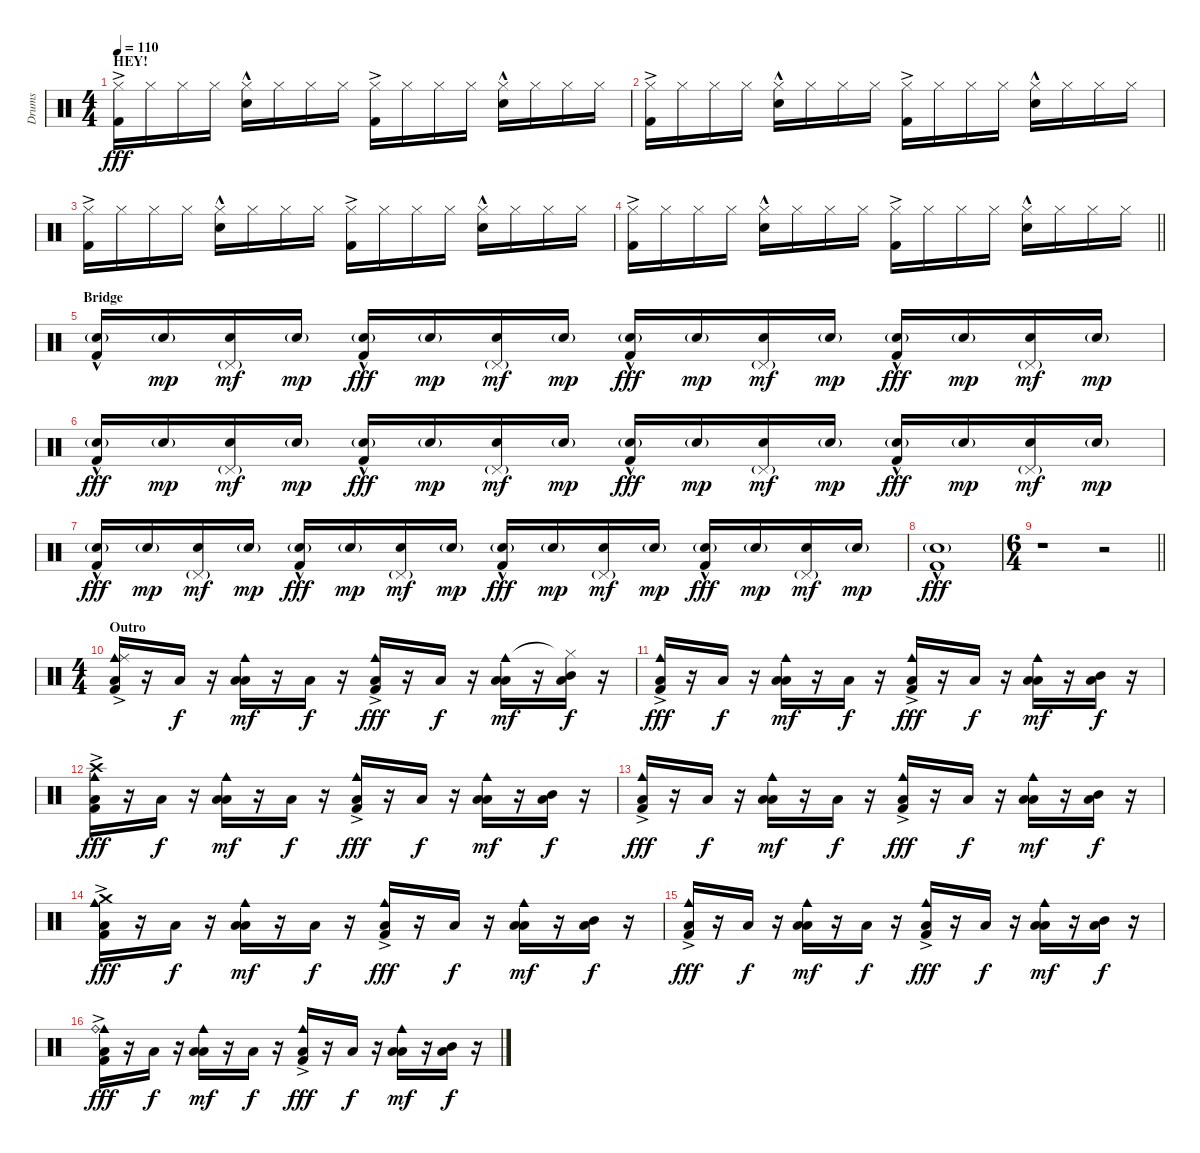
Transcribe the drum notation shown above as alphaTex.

\track ("Drums" "Drums") {instrument percussion}
\staff {score}
\articulation defaults
\ts (4 4)
\section ("" "HEY!")
\tempo 110
\clef neutral
\ks c
("Hi-Hat (closed)" "Kick (hit) 2"{ac}).16{dy fff} "Hi-Hat (closed)".16 "Hi-Hat (closed)".16 "Hi-Hat (closed)".16 ("Hi-Hat (closed)" "Electric Snare (hit)"{hac}).16 "Hi-Hat (closed)".16 "Hi-Hat (closed)".16 "Hi-Hat (closed)".16 ("Hi-Hat (closed)" "Kick (hit) 2"{ac}).16 "Hi-Hat (closed)".16 "Hi-Hat (closed)".16 "Hi-Hat (closed)".16 ("Hi-Hat (closed)" "Electric Snare (hit)"{hac}).16 "Hi-Hat (closed)".16 "Hi-Hat (closed)".16 "Hi-Hat (closed)".16 |
("Hi-Hat (closed)" "Kick (hit) 2"{ac}).16 "Hi-Hat (closed)".16 "Hi-Hat (closed)".16 "Hi-Hat (closed)".16 ("Hi-Hat (closed)" "Electric Snare (hit)"{hac}).16 "Hi-Hat (closed)".16 "Hi-Hat (closed)".16 "Hi-Hat (closed)".16 ("Hi-Hat (closed)" "Kick (hit) 2"{ac}).16 "Hi-Hat (closed)".16 "Hi-Hat (closed)".16 "Hi-Hat (closed)".16 ("Hi-Hat (closed)" "Electric Snare (hit)"{hac}).16 "Hi-Hat (closed)".16 "Hi-Hat (closed)".16 "Hi-Hat (closed)".16 |
("Hi-Hat (closed)" "Kick (hit) 2"{ac}).16 "Hi-Hat (closed)".16 "Hi-Hat (closed)".16 "Hi-Hat (closed)".16 ("Hi-Hat (closed)" "Electric Snare (hit)"{hac}).16 "Hi-Hat (closed)".16 "Hi-Hat (closed)".16 "Hi-Hat (closed)".16 ("Hi-Hat (closed)" "Kick (hit) 2"{ac}).16 "Hi-Hat (closed)".16 "Hi-Hat (closed)".16 "Hi-Hat (closed)".16 ("Hi-Hat (closed)" "Electric Snare (hit)"{hac}).16 "Hi-Hat (closed)".16 "Hi-Hat (closed)".16 "Hi-Hat (closed)".16 |
\barLineRight lightlight
("Hi-Hat (closed)" "Kick (hit) 2"{ac}).16 "Hi-Hat (closed)".16 "Hi-Hat (closed)".16 "Hi-Hat (closed)".16 ("Hi-Hat (closed)" "Electric Snare (hit)"{hac}).16 "Hi-Hat (closed)".16 "Hi-Hat (closed)".16 "Hi-Hat (closed)".16 ("Hi-Hat (closed)" "Kick (hit) 2"{ac}).16 "Hi-Hat (closed)".16 "Hi-Hat (closed)".16 "Hi-Hat (closed)".16 ("Hi-Hat (closed)" "Electric Snare (hit)"{hac}).16 "Hi-Hat (closed)".16 "Hi-Hat (closed)".16 "Hi-Hat (closed)".16 |
\section ("" "Bridge")
("Electric Snare (hit)"{g} "Kick (hit) 2"{hac}).16 "Electric Snare (hit)"{g}.16{dy mp} ("Pedal Hi-Hat (hit)"{g} "Electric Snare (hit)").16{dy mf} "Electric Snare (hit)"{g}.16{dy mp} ("Electric Snare (hit)"{g} "Kick (hit) 2"{hac}).16{dy fff} "Electric Snare (hit)"{g}.16{dy mp} ("Pedal Hi-Hat (hit)"{g} "Electric Snare (hit)").16{dy mf} "Electric Snare (hit)"{g}.16{dy mp} ("Electric Snare (hit)"{g} "Kick (hit) 2"{hac}).16{dy fff} "Electric Snare (hit)"{g}.16{dy mp} ("Pedal Hi-Hat (hit)"{g} "Electric Snare (hit)").16{dy mf} "Electric Snare (hit)"{g}.16{dy mp} ("Electric Snare (hit)"{g} "Kick (hit) 2"{hac}).16{dy fff} "Electric Snare (hit)"{g}.16{dy mp} ("Pedal Hi-Hat (hit)"{g} "Electric Snare (hit)").16{dy mf} "Electric Snare (hit)"{g}.16{dy mp} |
("Electric Snare (hit)"{g} "Kick (hit) 2"{hac}).16{dy fff} "Electric Snare (hit)"{g}.16{dy mp} ("Pedal Hi-Hat (hit)"{g} "Electric Snare (hit)").16{dy mf} "Electric Snare (hit)"{g}.16{dy mp} ("Electric Snare (hit)"{g} "Kick (hit) 2"{hac}).16{dy fff} "Electric Snare (hit)"{g}.16{dy mp} ("Pedal Hi-Hat (hit)"{g} "Electric Snare (hit)").16{dy mf} "Electric Snare (hit)"{g}.16{dy mp} ("Electric Snare (hit)"{g} "Kick (hit) 2"{hac}).16{dy fff} "Electric Snare (hit)"{g}.16{dy mp} ("Pedal Hi-Hat (hit)"{g} "Electric Snare (hit)").16{dy mf} "Electric Snare (hit)"{g}.16{dy mp} ("Electric Snare (hit)"{g} "Kick (hit) 2"{hac}).16{dy fff} "Electric Snare (hit)"{g}.16{dy mp} ("Pedal Hi-Hat (hit)"{g} "Electric Snare (hit)").16{dy mf} "Electric Snare (hit)"{g}.16{dy mp} |
("Electric Snare (hit)"{g} "Kick (hit) 2"{hac}).16{dy fff} "Electric Snare (hit)"{g}.16{dy mp} ("Pedal Hi-Hat (hit)"{g} "Electric Snare (hit)").16{dy mf} "Electric Snare (hit)"{g}.16{dy mp} ("Electric Snare (hit)"{g} "Kick (hit) 2"{hac}).16{dy fff} "Electric Snare (hit)"{g}.16{dy mp} ("Pedal Hi-Hat (hit)"{g} "Electric Snare (hit)").16{dy mf} "Electric Snare (hit)"{g}.16{dy mp} ("Electric Snare (hit)"{g} "Kick (hit) 2"{hac}).16{dy fff} "Electric Snare (hit)"{g}.16{dy mp} ("Pedal Hi-Hat (hit)"{g} "Electric Snare (hit)").16{dy mf} "Electric Snare (hit)"{g}.16{dy mp} ("Electric Snare (hit)"{g} "Kick (hit) 2"{hac}).16{dy fff} "Electric Snare (hit)"{g}.16{dy mp} ("Pedal Hi-Hat (hit)"{g} "Electric Snare (hit)").16{dy mf} "Electric Snare (hit)"{g}.16{dy mp} |
("Electric Snare (hit)"{g} "Kick (hit) 2"{hac}).1{dy fff} |
\ts (6 4)
\barLineRight lightlight
r.1 r.2 |
\ts (4 4)
\section ("" "Outro")
("Cowbell medium (hit)" "Ride (middle)" "Low Floor Tom (hit)" "Kick (hit) 2"{ac}).16 r.16 "Low Floor Tom (hit)".16{dy f} r.16 ("Cowbell medium (hit)" "Low Tom (hit)" "Low Floor Tom (hit)").16{dy mf} r.16 "Low Floor Tom (hit)".16{dy f} r.16 ("Cowbell medium (hit)" "Low Floor Tom (hit)" "Kick (hit) 2"{ac}).16{dy fff} r.16 "Low Floor Tom (hit)".16{dy f} r.16 ("Cowbell medium (hit)" "Low Tom (hit)" "Low Floor Tom (hit)").16{dy mf} r.16 ("Hi-Hat (closed)"{t} "Mid Tom (hit)" "Low Floor Tom (hit)").16{dy f} r.16 |
("Cowbell medium (hit)" "Low Floor Tom (hit)" "Kick (hit) 2"{ac}).16{dy fff} r.16 "Low Floor Tom (hit)".16{dy f} r.16 ("Cowbell medium (hit)" "Low Tom (hit)" "Low Floor Tom (hit)").16{dy mf} r.16 "Low Floor Tom (hit)".16{dy f} r.16 ("Cowbell medium (hit)" "Low Floor Tom (hit)" "Kick (hit) 2"{ac}).16{dy fff} r.16 "Low Floor Tom (hit)".16{dy f} r.16 ("Cowbell medium (hit)" "Low Tom (hit)" "Low Floor Tom (hit)").16{dy mf} r.16 ("Mid Tom (hit)" "Low Floor Tom (hit)").16{dy f} r.16 |
("Cowbell medium (hit)" "Crash high (hit)" "Low Floor Tom (hit)" "Kick (hit) 2"{ac}).16{dy fff} r.16 "Low Floor Tom (hit)".16{dy f} r.16 ("Cowbell medium (hit)" "Low Tom (hit)" "Low Floor Tom (hit)").16{dy mf} r.16 "Low Floor Tom (hit)".16{dy f} r.16 ("Cowbell medium (hit)" "Low Floor Tom (hit)" "Kick (hit) 2"{ac}).16{dy fff} r.16 "Low Floor Tom (hit)".16{dy f} r.16 ("Cowbell medium (hit)" "Low Tom (hit)" "Low Floor Tom (hit)").16{dy mf} r.16 ("Mid Tom (hit)" "Low Floor Tom (hit)").16{dy f} r.16 |
("Cowbell medium (hit)" "Low Floor Tom (hit)" "Kick (hit) 2"{ac}).16{dy fff} r.16 "Low Floor Tom (hit)".16{dy f} r.16 ("Cowbell medium (hit)" "Low Tom (hit)" "Low Floor Tom (hit)").16{dy mf} r.16 "Low Floor Tom (hit)".16{dy f} r.16 ("Cowbell medium (hit)" "Low Floor Tom (hit)" "Kick (hit) 2"{ac}).16{dy fff} r.16 "Low Floor Tom (hit)".16{dy f} r.16 ("Cowbell medium (hit)" "Low Tom (hit)" "Low Floor Tom (hit)").16{dy mf} r.16 ("Mid Tom (hit)" "Low Floor Tom (hit)").16{dy f} r.16 |
("Cowbell medium (hit)" "Crash medium (hit)" "Low Floor Tom (hit)" "Kick (hit) 2"{ac}).16{dy fff} r.16 "Low Floor Tom (hit)".16{dy f} r.16 ("Cowbell medium (hit)" "Low Tom (hit)" "Low Floor Tom (hit)").16{dy mf} r.16 "Low Floor Tom (hit)".16{dy f} r.16 ("Cowbell medium (hit)" "Low Floor Tom (hit)" "Kick (hit) 2"{ac}).16{dy fff} r.16 "Low Floor Tom (hit)".16{dy f} r.16 ("Cowbell medium (hit)" "Low Tom (hit)" "Low Floor Tom (hit)").16{dy mf} r.16 ("Mid Tom (hit)" "Low Floor Tom (hit)").16{dy f} r.16 |
("Cowbell medium (hit)" "Low Floor Tom (hit)" "Kick (hit) 2"{ac}).16{dy fff} r.16 "Low Floor Tom (hit)".16{dy f} r.16 ("Cowbell medium (hit)" "Low Tom (hit)" "Low Floor Tom (hit)").16{dy mf} r.16 "Low Floor Tom (hit)".16{dy f} r.16 ("Cowbell medium (hit)" "Low Floor Tom (hit)" "Kick (hit) 2"{ac}).16{dy fff} r.16 "Low Floor Tom (hit)".16{dy f} r.16 ("Cowbell medium (hit)" "Low Tom (hit)" "Low Floor Tom (hit)").16{dy mf} r.16 ("Mid Tom (hit)" "Low Floor Tom (hit)").16{dy f} r.16 |
("Cowbell medium (hit)" "Ride (bell)" "Low Floor Tom (hit)" "Kick (hit) 2"{ac}).16{dy fff} r.16 "Low Floor Tom (hit)".16{dy f} r.16 ("Cowbell medium (hit)" "Low Tom (hit)" "Low Floor Tom (hit)").16{dy mf} r.16 "Low Floor Tom (hit)".16{dy f} r.16 ("Cowbell medium (hit)" "Low Floor Tom (hit)" "Kick (hit) 2"{ac}).16{dy fff} r.16 "Low Floor Tom (hit)".16{dy f} r.16 ("Cowbell medium (hit)" "Low Tom (hit)" "Low Floor Tom (hit)").16{dy mf} r.16 ("Mid Tom (hit)" "Low Floor Tom (hit)").16{dy f} r.16
